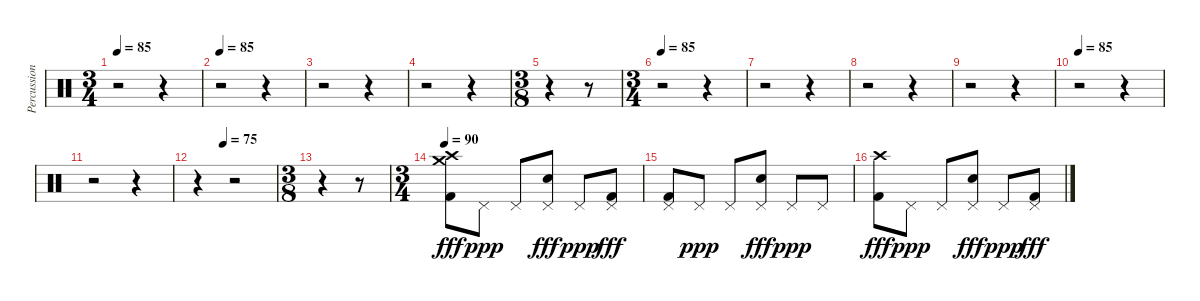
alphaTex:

\track ("Percussion" "Percussion") {instrument percussion}
\staff {score}
\articulation defaults
\ts (3 4)
\tempo 85
\clef neutral
\ks c
r.2{dy fff} r.4 |
\tempo 85
r.2 r.4 |
r.2 r.4 |
r.2 r.4 |
\ts (3 8)
r.4 r.8 |
\ts (3 4)
\tempo 85
r.2 r.4 |
r.2 r.4 |
r.2 r.4 |
r.2 r.4 |
\tempo 85
r.2 r.4 |
r.2 r.4 |
\tempo (75 0.3333333333333333)
r.4 r.2 |
\ts (3 8)
r.4 r.8 |
\ts (3 4)
\tempo 90
("Crash medium (hit)" "Crash high (hit)" "Kick (hit) 2").8 "Pedal Hi-Hat (hit)".8{dy ppp} "Pedal Hi-Hat (hit)".8 ("Pedal Hi-Hat (hit)" "Snare (hit) 2").8{dy fff} "Pedal Hi-Hat (hit)".8{dy ppp} ("Pedal Hi-Hat (hit)" "Kick (hit) 2").8{dy fff} |
("Pedal Hi-Hat (hit)" "Kick (hit) 2").8 "Pedal Hi-Hat (hit)".8{dy ppp} "Pedal Hi-Hat (hit)".8 ("Pedal Hi-Hat (hit)" "Snare (hit) 2").8{dy fff} "Pedal Hi-Hat (hit)".8{dy ppp} "Pedal Hi-Hat (hit)".8 |
("Crash high (hit)" "Kick (hit) 2").8{dy fff} "Pedal Hi-Hat (hit)".8{dy ppp} "Pedal Hi-Hat (hit)".8 ("Pedal Hi-Hat (hit)" "Snare (hit) 2").8{dy fff} "Pedal Hi-Hat (hit)".8{dy ppp} ("Pedal Hi-Hat (hit)" "Kick (hit) 2").8{dy fff}
